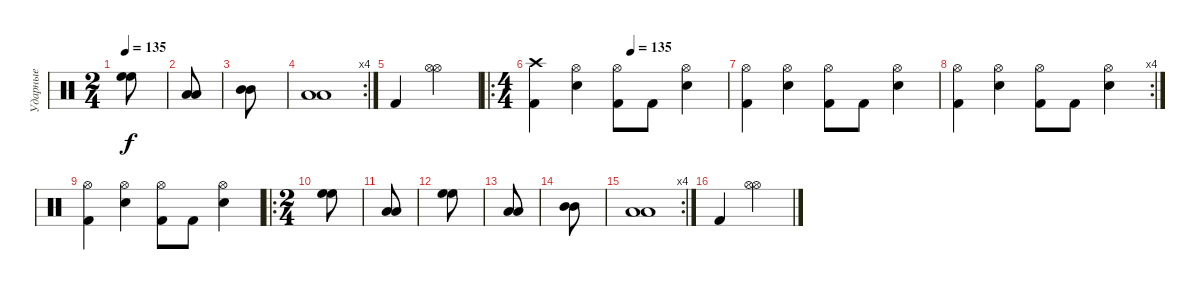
\track ("Ударные" "Ударные") {instrument percussion}
\staff {score}
\articulation defaults
\ts (2 4)
\tempo 135
\clef neutral
\ks c
("High Floor Tom (hit)" "High Floor Tom (hit)").8{dy f} |
("Low Tom (hit)" "Low Tom (hit)").8 |
("Mid Tom (hit)" "Mid Tom (hit)").8 |
\rc 4
("Low Tom (hit)" "Low Tom (hit)").1 |
"Kick (hit) 2".4 ("Hi-Hat (open)" "Hi-Hat (open)").4 |
\ro
\ts (4 4)
\tempo (135 0.5)
("Crash high (hit)" "Kick (hit) 2").4 ("Hi-Hat (open)" "Snare (hit) 2").4 ("Hi-Hat (open)" "Kick (hit) 2").8 "Kick (hit) 2".8 ("Hi-Hat (open)" "Snare (hit) 2").4 |
("Hi-Hat (open)" "Kick (hit) 2").4 ("Hi-Hat (open)" "Snare (hit) 2").4 ("Hi-Hat (open)" "Kick (hit) 2").8 "Kick (hit) 2".8 ("Hi-Hat (open)" "Snare (hit) 2").4 |
\rc 4
("Hi-Hat (open)" "Kick (hit) 2").4 ("Hi-Hat (open)" "Snare (hit) 2").4 ("Hi-Hat (open)" "Kick (hit) 2").8 "Kick (hit) 2".8 ("Hi-Hat (open)" "Snare (hit) 2").4 |
("Hi-Hat (open)" "Kick (hit) 2").4 ("Hi-Hat (open)" "Snare (hit) 2").4 ("Hi-Hat (open)" "Kick (hit) 2").8 "Kick (hit) 2".8 ("Hi-Hat (open)" "Snare (hit) 2").4 |
\ro
\ts (2 4)
("High Floor Tom (hit)" "High Floor Tom (hit)").8 |
("Low Tom (hit)" "Low Tom (hit)").8 |
("High Floor Tom (hit)" "High Floor Tom (hit)").8 |
("Low Tom (hit)" "Low Tom (hit)").8 |
("Mid Tom (hit)" "Mid Tom (hit)").8 |
\rc 4
("Low Tom (hit)" "Low Tom (hit)").1 |
"Kick (hit) 2".4 ("Hi-Hat (open)" "Hi-Hat (open)").4
